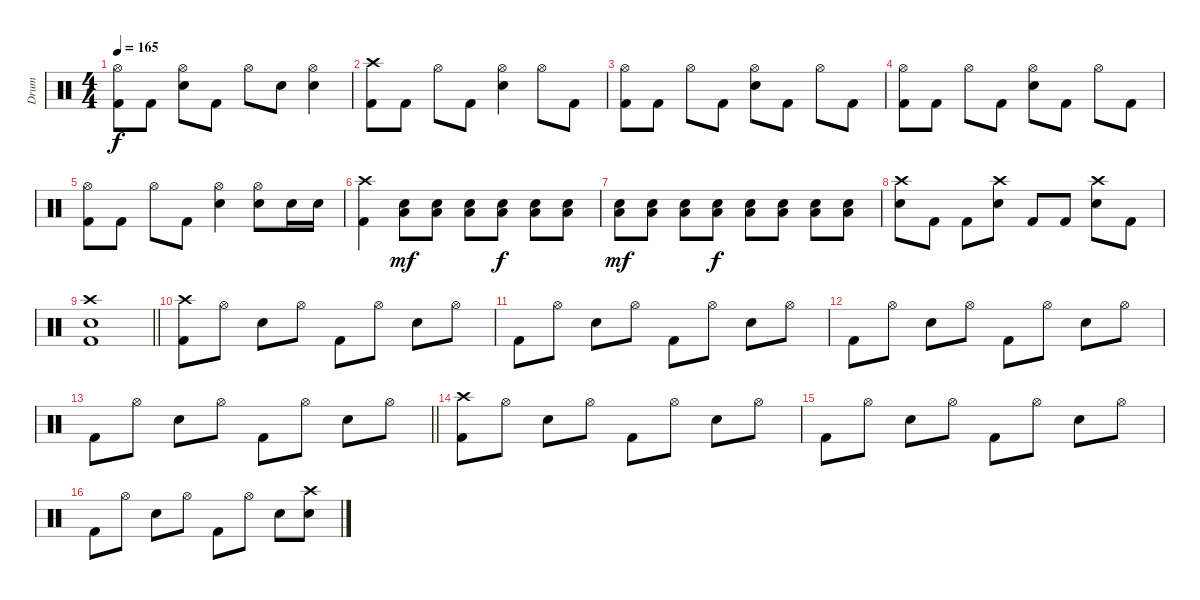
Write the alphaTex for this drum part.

\track ("Drum" "Drum") {instrument percussion}
\staff {score}
\articulation defaults
\ts (4 4)
\tempo 165
\clef neutral
\ks c
("Hi-Hat (open)" "Kick (hit) 2").8{dy f} "Kick (hit) 2".8 ("Hi-Hat (open)" "Electric Snare (hit)").8 "Kick (hit) 2".8 "Hi-Hat (open)".8 "Electric Snare (hit)".8 ("Hi-Hat (open)" "Electric Snare (hit)").4 |
("Crash high (hit)" "Kick (hit) 2").8 "Kick (hit) 2".8 "Hi-Hat (open)".8 "Kick (hit) 2".8 ("Hi-Hat (open)" "Electric Snare (hit)").4 "Hi-Hat (open)".8 "Kick (hit) 2".8 |
("Hi-Hat (open)" "Kick (hit) 2").8 "Kick (hit) 2".8 "Hi-Hat (open)".8 "Kick (hit) 2".8 ("Hi-Hat (open)" "Electric Snare (hit)").8 "Kick (hit) 2".8 "Hi-Hat (open)".8 "Kick (hit) 2".8 |
("Hi-Hat (open)" "Kick (hit) 2").8 "Kick (hit) 2".8 "Hi-Hat (open)".8 "Kick (hit) 2".8 ("Hi-Hat (open)" "Electric Snare (hit)").8 "Kick (hit) 2".8 "Hi-Hat (open)".8 "Kick (hit) 2".8 |
("Hi-Hat (open)" "Kick (hit) 2").8 "Kick (hit) 2".8 "Hi-Hat (open)".8 "Kick (hit) 2".8 ("Hi-Hat (open)" "Electric Snare (hit)").4 ("Hi-Hat (open)" "Electric Snare (hit)").8 "Electric Snare (hit)".16 "Electric Snare (hit)".16 |
("Crash high (hit)" "Kick (hit) 2").4 ("Electric Snare (hit)" "Low Tom (hit)").8{dy mf} ("Electric Snare (hit)" "Low Tom (hit)").8 ("Electric Snare (hit)" "Low Tom (hit)").8 ("Electric Snare (hit)" "Low Tom (hit)").8{dy f} ("Electric Snare (hit)" "Low Tom (hit)").8 ("Electric Snare (hit)" "Low Tom (hit)").8 |
("Electric Snare (hit)" "Low Tom (hit)").8{dy mf} ("Electric Snare (hit)" "Low Tom (hit)").8 ("Electric Snare (hit)" "Low Tom (hit)").8 ("Electric Snare (hit)" "Low Tom (hit)").8{dy f} ("Electric Snare (hit)" "Low Tom (hit)").8 ("Electric Snare (hit)" "Low Tom (hit)").8 ("Electric Snare (hit)" "Low Tom (hit)").8 ("Electric Snare (hit)" "Low Tom (hit)").8 |
("Crash high (hit)" "Electric Snare (hit)").8 "Kick (hit) 2".8 "Kick (hit) 2".8 ("Crash high (hit)" "Electric Snare (hit)").8 "Kick (hit) 2".8 "Kick (hit) 2".8 ("Crash high (hit)" "Electric Snare (hit)").8 "Kick (hit) 2".8 |
\barLineRight lightlight
("Crash high (hit)" "Electric Snare (hit)" "Kick (hit) 2").1 |
("Crash high (hit)" "Kick (hit) 2").8 "Hi-Hat (open)".8 "Electric Snare (hit)".8 "Hi-Hat (open)".8 "Kick (hit) 2".8 "Hi-Hat (open)".8 "Electric Snare (hit)".8 "Hi-Hat (open)".8 |
"Kick (hit) 2".8 "Hi-Hat (open)".8 "Electric Snare (hit)".8 "Hi-Hat (open)".8 "Kick (hit) 2".8 "Hi-Hat (open)".8 "Electric Snare (hit)".8 "Hi-Hat (open)".8 |
"Kick (hit) 2".8 "Hi-Hat (open)".8 "Electric Snare (hit)".8 "Hi-Hat (open)".8 "Kick (hit) 2".8 "Hi-Hat (open)".8 "Electric Snare (hit)".8 "Hi-Hat (open)".8 |
\barLineRight lightlight "Kick (hit) 2".8 "Hi-Hat (open)".8 "Electric Snare (hit)".8 "Hi-Hat (open)".8 "Kick (hit) 2".8 "Hi-Hat (open)".8 "Electric Snare (hit)".8 "Hi-Hat (open)".8
|
("Crash high (hit)" "Kick (hit) 2").8 "Hi-Hat (open)".8 "Electric Snare (hit)".8 "Hi-Hat (open)".8 "Kick (hit) 2".8 "Hi-Hat (open)".8 "Electric Snare (hit)".8 "Hi-Hat (open)".8 |
"Kick (hit) 2".8 "Hi-Hat (open)".8 "Electric Snare (hit)".8 "Hi-Hat (open)".8 "Kick (hit) 2".8 "Hi-Hat (open)".8 "Electric Snare (hit)".8 "Hi-Hat (open)".8 |
"Kick (hit) 2".8 "Hi-Hat (open)".8 "Electric Snare (hit)".8 "Hi-Hat (open)".8 "Kick (hit) 2".8 "Hi-Hat (open)".8 "Electric Snare (hit)".8 ("Crash high (hit)" "Electric Snare (hit)").8
